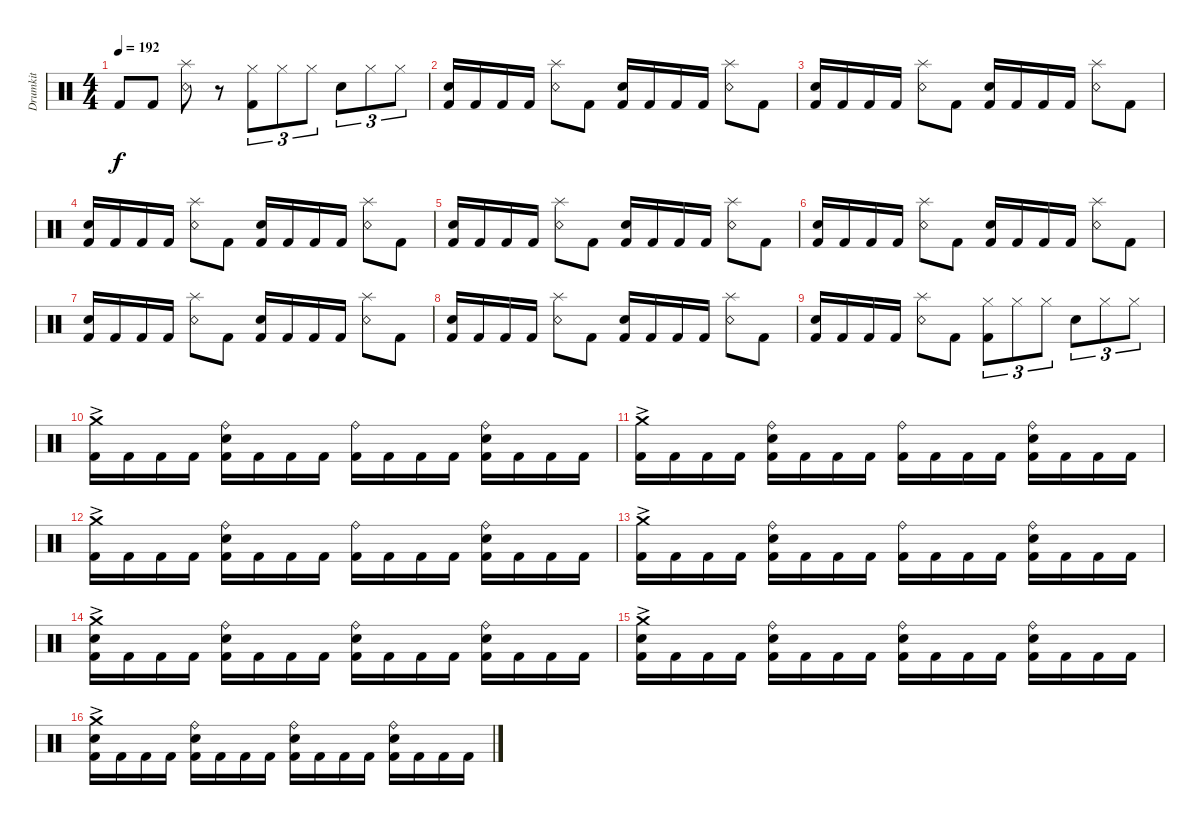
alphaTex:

\track ("Drumkit" "Drumkit") {instrument percussion}
\staff {score}
\articulation defaults
\ts (4 4)
\tempo 192
\clef neutral
\ks c "Kick (hit) 2".8{dy f} "Kick (hit) 2".8
("Snare (rim shot)" "Splash (hit)").8 r.8 ("Hi-Hat (closed)" "Kick (hit) 2").8{tu (3 2)} "Hi-Hat (closed)".8{tu (3 2)} "Hi-Hat (closed)".8{tu (3 2)} "Snare (hit) 2".8{tu (3 2)} "Hi-Hat (closed)".8{tu (3 2)} "Hi-Hat (closed)".8{tu (3 2)} |
("Snare (hit) 2" "Kick (hit) 2").16 "Kick (hit) 2".16 "Kick (hit) 2".16 "Kick (hit) 2".16 ("Snare (rim shot)" "Splash (hit)").8 "Kick (hit) 2".8 ("Snare (hit) 2" "Kick (hit) 2").16 "Kick (hit) 2".16 "Kick (hit) 2".16 "Kick (hit) 2".16 ("Snare (rim shot)" "Splash (hit)").8 "Kick (hit) 2".8 |
("Snare (hit) 2" "Kick (hit) 2").16 "Kick (hit) 2".16 "Kick (hit) 2".16 "Kick (hit) 2".16 ("Snare (rim shot)" "Splash (hit)").8 "Kick (hit) 2".8 ("Snare (hit) 2" "Kick (hit) 2").16 "Kick (hit) 2".16 "Kick (hit) 2".16 "Kick (hit) 2".16 ("Snare (rim shot)" "Splash (hit)").8 "Kick (hit) 2".8 |
("Snare (hit) 2" "Kick (hit) 2").16 "Kick (hit) 2".16 "Kick (hit) 2".16 "Kick (hit) 2".16 ("Snare (rim shot)" "Splash (hit)").8 "Kick (hit) 2".8 ("Snare (hit) 2" "Kick (hit) 2").16 "Kick (hit) 2".16 "Kick (hit) 2".16 "Kick (hit) 2".16 ("Snare (rim shot)" "Splash (hit)").8 "Kick (hit) 2".8 |
("Snare (hit) 2" "Kick (hit) 2").16 "Kick (hit) 2".16 "Kick (hit) 2".16 "Kick (hit) 2".16 ("Snare (rim shot)" "Splash (hit)").8 "Kick (hit) 2".8 ("Snare (hit) 2" "Kick (hit) 2").16 "Kick (hit) 2".16 "Kick (hit) 2".16 "Kick (hit) 2".16 ("Snare (rim shot)" "Splash (hit)").8 "Kick (hit) 2".8 |
("Snare (hit) 2" "Kick (hit) 2").16 "Kick (hit) 2".16 "Kick (hit) 2".16 "Kick (hit) 2".16 ("Snare (rim shot)" "Splash (hit)").8 "Kick (hit) 2".8 ("Snare (hit) 2" "Kick (hit) 2").16 "Kick (hit) 2".16 "Kick (hit) 2".16 "Kick (hit) 2".16 ("Snare (rim shot)" "Splash (hit)").8 "Kick (hit) 2".8 |
("Snare (hit) 2" "Kick (hit) 2").16 "Kick (hit) 2".16 "Kick (hit) 2".16 "Kick (hit) 2".16 ("Snare (rim shot)" "Splash (hit)").8 "Kick (hit) 2".8 ("Snare (hit) 2" "Kick (hit) 2").16 "Kick (hit) 2".16 "Kick (hit) 2".16 "Kick (hit) 2".16 ("Snare (rim shot)" "Splash (hit)").8 "Kick (hit) 2".8 |
("Snare (hit) 2" "Kick (hit) 2").16 "Kick (hit) 2".16 "Kick (hit) 2".16 "Kick (hit) 2".16 ("Snare (rim shot)" "Splash (hit)").8 "Kick (hit) 2".8 ("Snare (hit) 2" "Kick (hit) 2").16 "Kick (hit) 2".16 "Kick (hit) 2".16 "Kick (hit) 2".16 ("Snare (rim shot)" "Splash (hit)").8 "Kick (hit) 2".8 |
("Snare (hit) 2" "Kick (hit) 2").16 "Kick (hit) 2".16 "Kick (hit) 2".16 "Kick (hit) 2".16 ("Snare (rim shot)" "Splash (hit)").8 "Kick (hit) 2".8 ("Hi-Hat (closed)" "Kick (hit) 2").8{tu (3 2)} "Hi-Hat (closed)".8{tu (3 2)} "Hi-Hat (closed)".8{tu (3 2)} "Snare (hit) 2".8{tu (3 2)} "Hi-Hat (closed)".8{tu (3 2)} "Hi-Hat (closed)".8{tu (3 2)} |
("Kick (hit) 2" "Crash medium (hit)"{ac}).16 "Kick (hit) 2".16 "Kick (hit) 2".16 "Kick (hit) 2".16 ("Kick (hit) 2" "Ride (bell)" "Snare (hit) 2").16 "Kick (hit) 2".16 "Kick (hit) 2".16 "Kick (hit) 2".16 ("Kick (hit) 2" "Ride (bell)").16 "Kick (hit) 2".16 "Kick (hit) 2".16 "Kick (hit) 2".16 ("Kick (hit) 2" "Ride (bell)" "Snare (hit) 2").16 "Kick (hit) 2".16 "Kick (hit) 2".16 "Kick (hit) 2".16 |
("Kick (hit) 2" "Crash medium (hit)"{ac}).16 "Kick (hit) 2".16 "Kick (hit) 2".16 "Kick (hit) 2".16 ("Kick (hit) 2" "Ride (bell)" "Snare (hit) 2").16 "Kick (hit) 2".16 "Kick (hit) 2".16 "Kick (hit) 2".16 ("Kick (hit) 2" "Ride (bell)").16 "Kick (hit) 2".16 "Kick (hit) 2".16 "Kick (hit) 2".16 ("Kick (hit) 2" "Ride (bell)" "Snare (hit) 2").16 "Kick (hit) 2".16 "Kick (hit) 2".16 "Kick (hit) 2".16 |
("Kick (hit) 2" "Crash medium (hit)"{ac}).16 "Kick (hit) 2".16 "Kick (hit) 2".16 "Kick (hit) 2".16 ("Kick (hit) 2" "Ride (bell)" "Snare (hit) 2").16 "Kick (hit) 2".16 "Kick (hit) 2".16 "Kick (hit) 2".16 ("Kick (hit) 2" "Ride (bell)").16 "Kick (hit) 2".16 "Kick (hit) 2".16 "Kick (hit) 2".16 ("Kick (hit) 2" "Ride (bell)" "Snare (hit) 2").16 "Kick (hit) 2".16 "Kick (hit) 2".16 "Kick (hit) 2".16 |
("Kick (hit) 2" "Crash medium (hit)"{ac}).16 "Kick (hit) 2".16 "Kick (hit) 2".16 "Kick (hit) 2".16 ("Kick (hit) 2" "Ride (bell)" "Snare (hit) 2").16 "Kick (hit) 2".16 "Kick (hit) 2".16 "Kick (hit) 2".16 ("Kick (hit) 2" "Ride (bell)").16 "Kick (hit) 2".16 "Kick (hit) 2".16 "Kick (hit) 2".16 ("Kick (hit) 2" "Ride (bell)" "Snare (hit) 2").16 "Kick (hit) 2".16 "Kick (hit) 2".16 "Kick (hit) 2".16 |
("Kick (hit) 2" "Crash medium (hit)"{ac} "Snare (hit) 2").16 "Kick (hit) 2".16 "Kick (hit) 2".16 "Kick (hit) 2".16 ("Kick (hit) 2" "Ride (bell)" "Snare (hit) 2").16 "Kick (hit) 2".16 "Kick (hit) 2".16 "Kick (hit) 2".16 ("Kick (hit) 2" "Ride (bell)" "Snare (hit) 2").16 "Kick (hit) 2".16 "Kick (hit) 2".16 "Kick (hit) 2".16 ("Kick (hit) 2" "Ride (bell)" "Snare (hit) 2").16 "Kick (hit) 2".16 "Kick (hit) 2".16 "Kick (hit) 2".16 |
("Kick (hit) 2" "Crash medium (hit)"{ac} "Snare (hit) 2").16 "Kick (hit) 2".16 "Kick (hit) 2".16 "Kick (hit) 2".16 ("Kick (hit) 2" "Ride (bell)" "Snare (hit) 2").16 "Kick (hit) 2".16 "Kick (hit) 2".16 "Kick (hit) 2".16 ("Kick (hit) 2" "Ride (bell)" "Snare (hit) 2").16 "Kick (hit) 2".16 "Kick (hit) 2".16 "Kick (hit) 2".16 ("Kick (hit) 2" "Ride (bell)" "Snare (hit) 2").16 "Kick (hit) 2".16 "Kick (hit) 2".16 "Kick (hit) 2".16 |
("Kick (hit) 2" "Crash medium (hit)"{ac} "Snare (hit) 2").16 "Kick (hit) 2".16 "Kick (hit) 2".16 "Kick (hit) 2".16 ("Kick (hit) 2" "Ride (bell)" "Snare (hit) 2").16 "Kick (hit) 2".16 "Kick (hit) 2".16 "Kick (hit) 2".16 ("Kick (hit) 2" "Ride (bell)" "Snare (hit) 2").16 "Kick (hit) 2".16 "Kick (hit) 2".16 "Kick (hit) 2".16 ("Kick (hit) 2" "Ride (bell)" "Snare (hit) 2").16 "Kick (hit) 2".16 "Kick (hit) 2".16 "Kick (hit) 2".16
